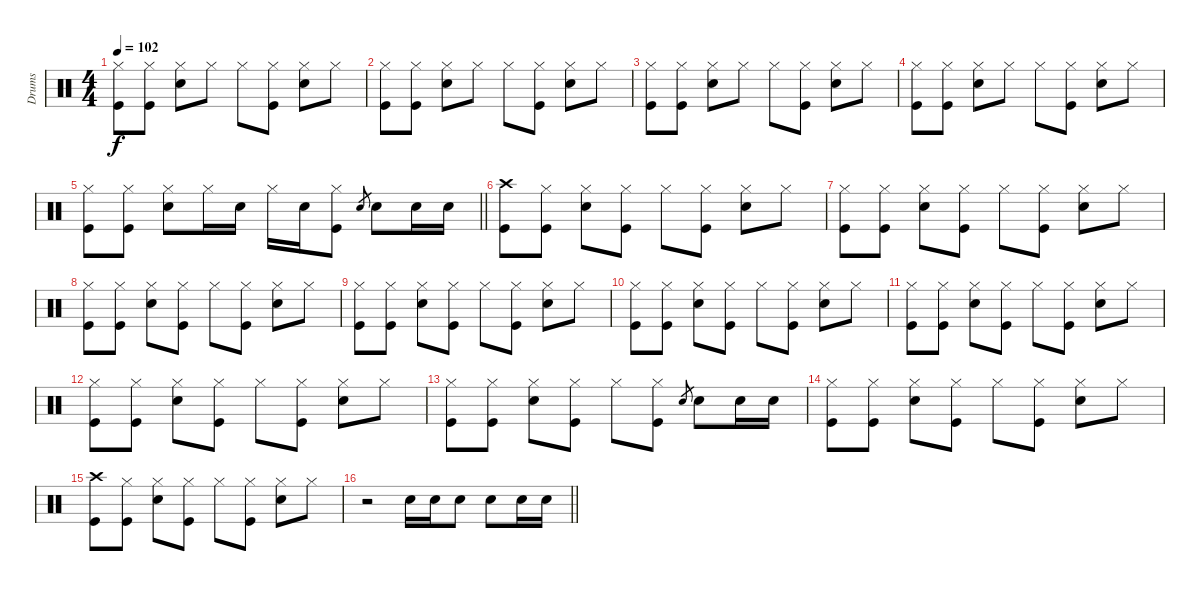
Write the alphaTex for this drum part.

\track ("Drums" "Drums") {instrument percussion}
\staff {score}
\articulation defaults
\ts (4 4)
\tempo 102
\clef neutral
\ks c
("Hi-Hat (closed)" "Kick (hit)").8{dy f} ("Hi-Hat (closed)" "Kick (hit)").8 ("Hi-Hat (closed)" "Electric Snare (hit)").8 "Hi-Hat (closed)".8 "Hi-Hat (closed)".8 ("Hi-Hat (closed)" "Kick (hit)").8 ("Hi-Hat (closed)" "Electric Snare (hit)").8 "Hi-Hat (closed)".8 |
("Hi-Hat (closed)" "Kick (hit)").8 ("Hi-Hat (closed)" "Kick (hit)").8 ("Hi-Hat (closed)" "Electric Snare (hit)").8 "Hi-Hat (closed)".8 "Hi-Hat (closed)".8 ("Hi-Hat (closed)" "Kick (hit)").8 ("Hi-Hat (closed)" "Electric Snare (hit)").8 "Hi-Hat (closed)".8 |
("Hi-Hat (closed)" "Kick (hit)").8 ("Hi-Hat (closed)" "Kick (hit)").8 ("Hi-Hat (closed)" "Electric Snare (hit)").8 "Hi-Hat (closed)".8 "Hi-Hat (closed)".8 ("Hi-Hat (closed)" "Kick (hit)").8 ("Hi-Hat (closed)" "Electric Snare (hit)").8 "Hi-Hat (closed)".8 |
("Hi-Hat (closed)" "Kick (hit)").8 ("Hi-Hat (closed)" "Kick (hit)").8 ("Hi-Hat (closed)" "Electric Snare (hit)").8 "Hi-Hat (closed)".8 "Hi-Hat (closed)".8 ("Hi-Hat (closed)" "Kick (hit)").8 ("Hi-Hat (closed)" "Electric Snare (hit)").8 "Hi-Hat (closed)".8 |
\barLineRight lightlight
("Hi-Hat (closed)" "Kick (hit)").8 ("Hi-Hat (closed)" "Kick (hit)").8 ("Hi-Hat (closed)" "Electric Snare (hit)").8 "Hi-Hat (closed)".16 "Electric Snare (hit)".16 "Hi-Hat (closed)".16 "Electric Snare (hit)".16 ("Hi-Hat (closed)" "Kick (hit)").8 "Electric Snare (hit)".8{gr} "Electric Snare (hit)".8 "Electric Snare (hit)".16 "Electric Snare (hit)".16 |
("Crash high (hit)" "Kick (hit)").8 ("Hi-Hat (closed)" "Kick (hit)").8 ("Hi-Hat (closed)" "Electric Snare (hit)").8 ("Hi-Hat (closed)" "Kick (hit)").8 "Hi-Hat (closed)".8 ("Hi-Hat (closed)" "Kick (hit)").8 ("Hi-Hat (closed)" "Electric Snare (hit)").8 "Hi-Hat (closed)".8 |
("Hi-Hat (closed)" "Kick (hit)").8 ("Hi-Hat (closed)" "Kick (hit)").8 ("Hi-Hat (closed)" "Electric Snare (hit)").8 ("Hi-Hat (closed)" "Kick (hit)").8 "Hi-Hat (closed)".8 ("Hi-Hat (closed)" "Kick (hit)").8 ("Hi-Hat (closed)" "Electric Snare (hit)").8 "Hi-Hat (closed)".8 |
("Hi-Hat (closed)" "Kick (hit)").8 ("Hi-Hat (closed)" "Kick (hit)").8 ("Hi-Hat (closed)" "Electric Snare (hit)").8 ("Hi-Hat (closed)" "Kick (hit)").8 "Hi-Hat (closed)".8 ("Hi-Hat (closed)" "Kick (hit)").8 ("Hi-Hat (closed)" "Electric Snare (hit)").8 "Hi-Hat (closed)".8 |
("Hi-Hat (closed)" "Kick (hit)").8 ("Hi-Hat (closed)" "Kick (hit)").8 ("Hi-Hat (closed)" "Electric Snare (hit)").8 ("Hi-Hat (closed)" "Kick (hit)").8 "Hi-Hat (closed)".8 ("Hi-Hat (closed)" "Kick (hit)").8 ("Hi-Hat (closed)" "Electric Snare (hit)").8 "Hi-Hat (closed)".8 |
("Hi-Hat (closed)" "Kick (hit)").8 ("Hi-Hat (closed)" "Kick (hit)").8 ("Hi-Hat (closed)" "Electric Snare (hit)").8 ("Hi-Hat (closed)" "Kick (hit)").8 "Hi-Hat (closed)".8 ("Hi-Hat (closed)" "Kick (hit)").8 ("Hi-Hat (closed)" "Electric Snare (hit)").8 "Hi-Hat (closed)".8 |
("Hi-Hat (closed)" "Kick (hit)").8 ("Hi-Hat (closed)" "Kick (hit)").8 ("Hi-Hat (closed)" "Electric Snare (hit)").8 ("Hi-Hat (closed)" "Kick (hit)").8 "Hi-Hat (closed)".8 ("Hi-Hat (closed)" "Kick (hit)").8 ("Hi-Hat (closed)" "Electric Snare (hit)").8 "Hi-Hat (closed)".8 |
("Hi-Hat (closed)" "Kick (hit)").8 ("Hi-Hat (closed)" "Kick (hit)").8 ("Hi-Hat (closed)" "Electric Snare (hit)").8 ("Hi-Hat (closed)" "Kick (hit)").8 "Hi-Hat (closed)".8 ("Hi-Hat (closed)" "Kick (hit)").8 ("Hi-Hat (closed)" "Electric Snare (hit)").8 "Hi-Hat (closed)".8 |
("Hi-Hat (closed)" "Kick (hit)").8 ("Hi-Hat (closed)" "Kick (hit)").8 ("Hi-Hat (closed)" "Electric Snare (hit)").8 ("Hi-Hat (closed)" "Kick (hit)").8 "Hi-Hat (closed)".8 ("Hi-Hat (closed)" "Kick (hit)").8 "Electric Snare (hit)".8{gr} "Electric Snare (hit)".8 "Electric Snare (hit)".16 "Electric Snare (hit)".16 |
("Hi-Hat (closed)" "Kick (hit)").8 ("Hi-Hat (closed)" "Kick (hit)").8 ("Hi-Hat (closed)" "Electric Snare (hit)").8 ("Hi-Hat (closed)" "Kick (hit)").8 "Hi-Hat (closed)".8 ("Hi-Hat (closed)" "Kick (hit)").8 ("Hi-Hat (closed)" "Electric Snare (hit)").8 "Hi-Hat (closed)".8 |
("Crash high (hit)" "Kick (hit)").8 ("Hi-Hat (closed)" "Kick (hit)").8 ("Hi-Hat (closed)" "Electric Snare (hit)").8 ("Hi-Hat (closed)" "Kick (hit)").8 "Hi-Hat (closed)".8 ("Hi-Hat (closed)" "Kick (hit)").8 ("Hi-Hat (closed)" "Electric Snare (hit)").8 "Hi-Hat (closed)".8 |
\barLineRight lightlight
r.2 "Electric Snare (hit)".16 "Electric Snare (hit)".16 "Electric Snare (hit)".8 "Electric Snare (hit)".8 "Electric Snare (hit)".16 "Electric Snare (hit)".16
